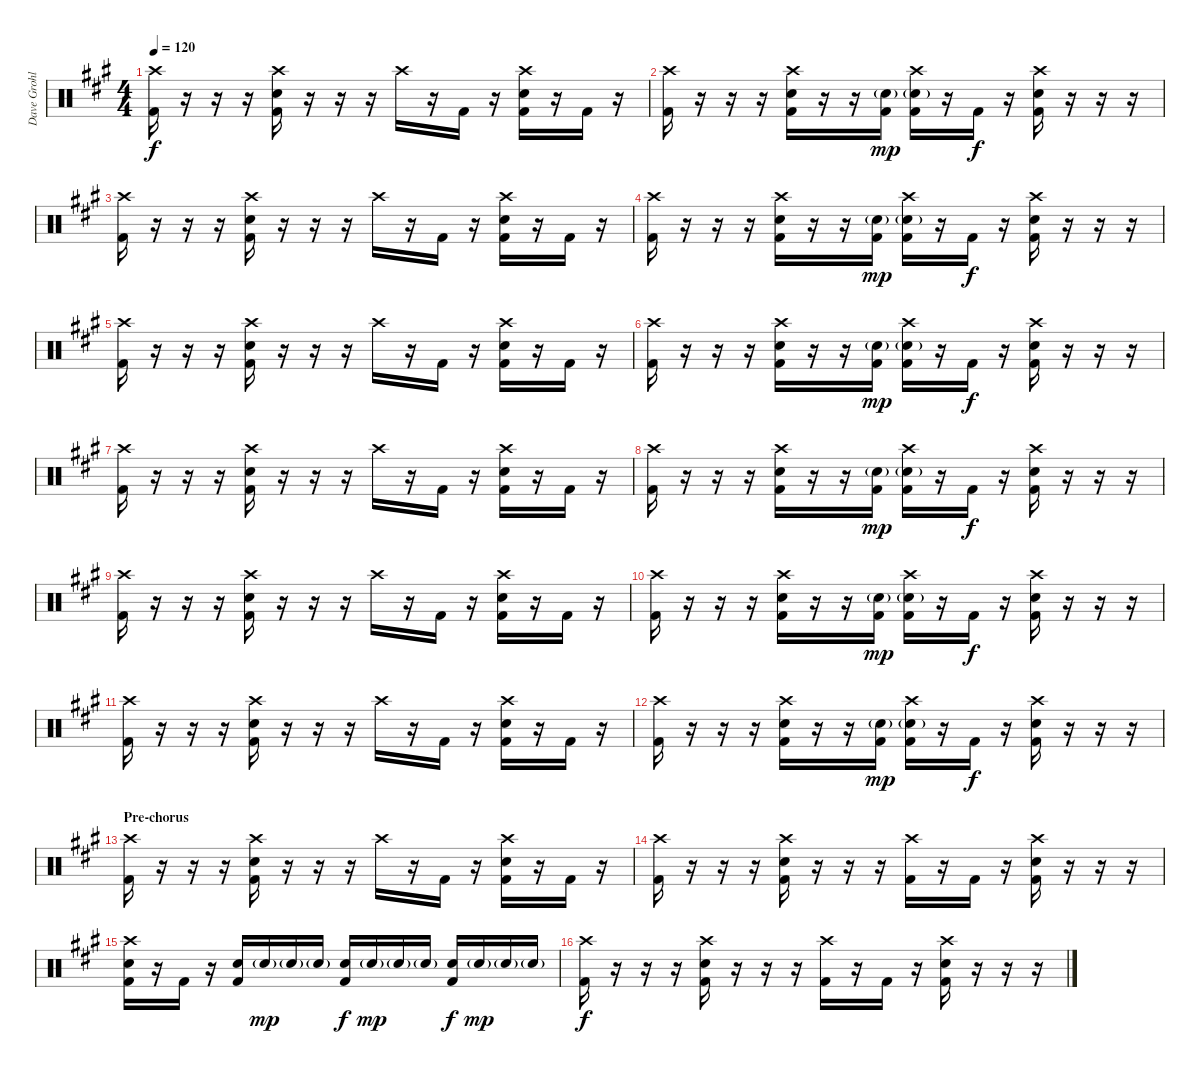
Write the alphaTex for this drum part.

\track ("Dave Grohl (Drums)" "Dave Grohl") {instrument percussion}
\staff {score}
\articulation defaults
\ts (4 4)
\tempo 120
\clef neutral
\ks a
("Crash high (hit)" "Kick (hit) 2").16{dy f} r.16 r.16 r.16 ("Crash high (hit)" "Snare (hit) 2" "Kick (hit) 2").16 r.16 r.16 r.16 "Crash high (hit)".16 r.16 "Kick (hit) 2".16 r.16 ("Crash high (hit)" "Snare (hit) 2" "Kick (hit) 2").16 r.16 "Kick (hit) 2".16 r.16 |
("Crash high (hit)" "Kick (hit) 2").16 r.16 r.16 r.16 ("Crash high (hit)" "Snare (hit) 2" "Kick (hit) 2").16 r.16 r.16 ("Snare (hit) 2"{g} "Kick (hit) 2").16{dy mp} ("Crash high (hit)" "Snare (hit) 2"{g} "Kick (hit) 2").16 r.16 "Kick (hit) 2".16{dy f} r.16 ("Crash high (hit)" "Snare (hit) 2" "Kick (hit) 2").16 r.16 r.16 r.16 |
("Crash high (hit)" "Kick (hit) 2").16 r.16 r.16 r.16 ("Crash high (hit)" "Snare (hit) 2" "Kick (hit) 2").16 r.16 r.16 r.16 "Crash high (hit)".16 r.16 "Kick (hit) 2".16 r.16 ("Crash high (hit)" "Snare (hit) 2" "Kick (hit) 2").16 r.16 "Kick (hit) 2".16 r.16 |
("Crash high (hit)" "Kick (hit) 2").16 r.16 r.16 r.16 ("Crash high (hit)" "Snare (hit) 2" "Kick (hit) 2").16 r.16 r.16 ("Snare (hit) 2"{g} "Kick (hit) 2").16{dy mp} ("Crash high (hit)" "Snare (hit) 2"{g} "Kick (hit) 2").16 r.16 "Kick (hit) 2".16{dy f} r.16 ("Crash high (hit)" "Snare (hit) 2" "Kick (hit) 2").16 r.16 r.16 r.16 |
("Crash high (hit)" "Kick (hit) 2").16 r.16 r.16 r.16 ("Crash high (hit)" "Snare (hit) 2" "Kick (hit) 2").16 r.16 r.16 r.16 "Crash high (hit)".16 r.16 "Kick (hit) 2".16 r.16 ("Crash high (hit)" "Snare (hit) 2" "Kick (hit) 2").16 r.16 "Kick (hit) 2".16 r.16 |
("Crash high (hit)" "Kick (hit) 2").16 r.16 r.16 r.16 ("Crash high (hit)" "Snare (hit) 2" "Kick (hit) 2").16 r.16 r.16 ("Snare (hit) 2"{g} "Kick (hit) 2").16{dy mp} ("Crash high (hit)" "Snare (hit) 2"{g} "Kick (hit) 2").16 r.16 "Kick (hit) 2".16{dy f} r.16 ("Crash high (hit)" "Snare (hit) 2" "Kick (hit) 2").16 r.16 r.16 r.16 |
("Crash high (hit)" "Kick (hit) 2").16 r.16 r.16 r.16 ("Crash high (hit)" "Snare (hit) 2" "Kick (hit) 2").16 r.16 r.16 r.16 "Crash high (hit)".16 r.16 "Kick (hit) 2".16 r.16 ("Crash high (hit)" "Snare (hit) 2" "Kick (hit) 2").16 r.16 "Kick (hit) 2".16 r.16 |
("Crash high (hit)" "Kick (hit) 2").16 r.16 r.16 r.16 ("Crash high (hit)" "Snare (hit) 2" "Kick (hit) 2").16 r.16 r.16 ("Snare (hit) 2"{g} "Kick (hit) 2").16{dy mp} ("Crash high (hit)" "Snare (hit) 2"{g} "Kick (hit) 2").16 r.16 "Kick (hit) 2".16{dy f} r.16 ("Crash high (hit)" "Snare (hit) 2" "Kick (hit) 2").16 r.16 r.16 r.16 |
("Crash high (hit)" "Kick (hit) 2").16 r.16 r.16 r.16 ("Crash high (hit)" "Snare (hit) 2" "Kick (hit) 2").16 r.16 r.16 r.16 "Crash high (hit)".16 r.16 "Kick (hit) 2".16 r.16 ("Crash high (hit)" "Snare (hit) 2" "Kick (hit) 2").16 r.16 "Kick (hit) 2".16 r.16 |
("Crash high (hit)" "Kick (hit) 2").16 r.16 r.16 r.16 ("Crash high (hit)" "Snare (hit) 2" "Kick (hit) 2").16 r.16 r.16 ("Snare (hit) 2"{g} "Kick (hit) 2").16{dy mp} ("Crash high (hit)" "Snare (hit) 2"{g} "Kick (hit) 2").16 r.16 "Kick (hit) 2".16{dy f} r.16 ("Crash high (hit)" "Snare (hit) 2" "Kick (hit) 2").16 r.16 r.16 r.16 |
("Crash high (hit)" "Kick (hit) 2").16 r.16 r.16 r.16 ("Crash high (hit)" "Snare (hit) 2" "Kick (hit) 2").16 r.16 r.16 r.16 "Crash high (hit)".16 r.16 "Kick (hit) 2".16 r.16 ("Crash high (hit)" "Snare (hit) 2" "Kick (hit) 2").16 r.16 "Kick (hit) 2".16 r.16 |
("Crash high (hit)" "Kick (hit) 2").16 r.16 r.16 r.16 ("Crash high (hit)" "Snare (hit) 2" "Kick (hit) 2").16 r.16 r.16 ("Snare (hit) 2"{g} "Kick (hit) 2").16{dy mp} ("Crash high (hit)" "Snare (hit) 2"{g} "Kick (hit) 2").16 r.16 "Kick (hit) 2".16{dy f} r.16 ("Crash high (hit)" "Snare (hit) 2" "Kick (hit) 2").16 r.16 r.16 r.16 |
\section ("" "Pre-chorus")
("Crash high (hit)" "Kick (hit) 2").16 r.16 r.16 r.16 ("Crash high (hit)" "Snare (hit) 2" "Kick (hit) 2").16 r.16 r.16 r.16 "Crash high (hit)".16 r.16 "Kick (hit) 2".16 r.16 ("Crash high (hit)" "Snare (hit) 2" "Kick (hit) 2").16 r.16 "Kick (hit) 2".16 r.16 |
("Crash high (hit)" "Kick (hit) 2").16 r.16 r.16 r.16 ("Crash high (hit)" "Snare (hit) 2" "Kick (hit) 2").16 r.16 r.16 r.16 ("Crash high (hit)" "Kick (hit) 2").16 r.16 "Kick (hit) 2".16 r.16 ("Crash high (hit)" "Snare (hit) 2" "Kick (hit) 2").16 r.16 r.16 r.16 |
("Crash high (hit)" "Snare (hit) 2" "Kick (hit) 2").16 r.16 "Kick (hit) 2".16 r.16 ("Snare (hit) 2" "Kick (hit) 2").16 "Snare (hit) 2"{g}.16{dy mp} "Snare (hit) 2"{g}.16 "Snare (hit) 2"{g}.16 ("Snare (hit) 2" "Kick (hit) 2").16{dy f} "Snare (hit) 2"{g}.16{dy mp} "Snare (hit) 2"{g}.16 "Snare (hit) 2"{g}.16 ("Snare (hit) 2" "Kick (hit) 2").16{dy f} "Snare (hit) 2"{g}.16{dy mp} "Snare (hit) 2"{g}.16 "Snare (hit) 2"{g}.16 |
("Crash high (hit)" "Kick (hit) 2").16{dy f} r.16 r.16 r.16 ("Crash high (hit)" "Snare (hit) 2" "Kick (hit) 2").16 r.16 r.16 r.16 ("Crash high (hit)" "Kick (hit) 2").16 r.16 "Kick (hit) 2".16 r.16 ("Crash high (hit)" "Snare (hit) 2" "Kick (hit) 2").16 r.16 r.16 r.16
